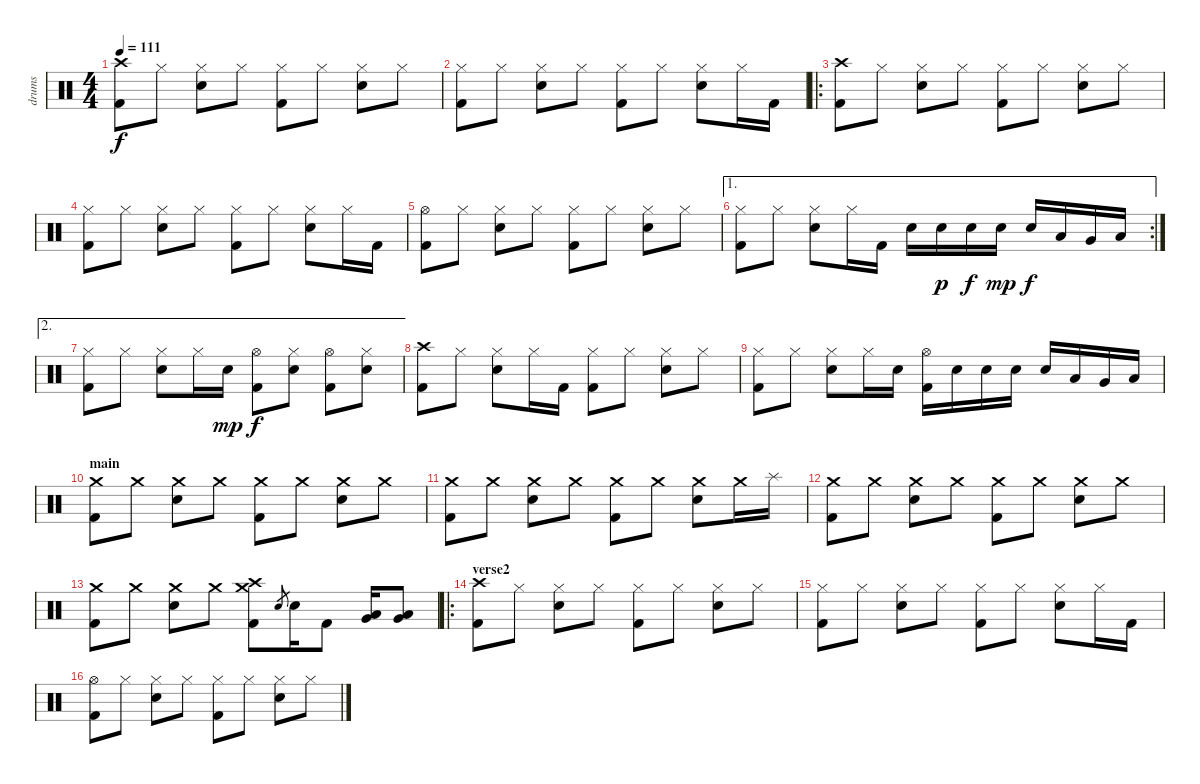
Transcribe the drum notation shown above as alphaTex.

\track ("drums" "drums") {instrument percussion}
\staff {score}
\articulation defaults
\ts (4 4)
\tempo 111
\clef neutral
\ks c
("Crash high (hit)" "Kick (hit) 2").8{dy f} "Hi-Hat (closed)".8 ("Hi-Hat (closed)" "Electric Snare (hit)").8 "Hi-Hat (closed)".8 ("Hi-Hat (closed)" "Kick (hit) 2").8 "Hi-Hat (closed)".8 ("Hi-Hat (closed)" "Electric Snare (hit)").8 "Hi-Hat (closed)".8 |
("Hi-Hat (closed)" "Kick (hit) 2").8 "Hi-Hat (closed)".8 ("Hi-Hat (closed)" "Electric Snare (hit)").8 "Hi-Hat (closed)".8 ("Hi-Hat (closed)" "Kick (hit) 2").8 "Hi-Hat (closed)".8 ("Hi-Hat (closed)" "Electric Snare (hit)").8 "Hi-Hat (closed)".16 "Kick (hit) 2".16 |
\ro
("Crash high (hit)" "Kick (hit) 2").8 "Hi-Hat (closed)".8 ("Hi-Hat (closed)" "Electric Snare (hit)").8 "Hi-Hat (closed)".8 ("Hi-Hat (closed)" "Kick (hit) 2").8 "Hi-Hat (closed)".8 ("Hi-Hat (closed)" "Electric Snare (hit)").8 "Hi-Hat (closed)".8 |
("Hi-Hat (closed)" "Kick (hit) 2").8 "Hi-Hat (closed)".8 ("Hi-Hat (closed)" "Electric Snare (hit)").8 "Hi-Hat (closed)".8 ("Hi-Hat (closed)" "Kick (hit) 2").8 "Hi-Hat (closed)".8 ("Hi-Hat (closed)" "Electric Snare (hit)").8 "Hi-Hat (closed)".16 "Kick (hit) 2".16 |
("Hi-Hat (open)" "Kick (hit) 2").8 "Hi-Hat (closed)".8 ("Hi-Hat (closed)" "Electric Snare (hit)").8 "Hi-Hat (closed)".8 ("Hi-Hat (closed)" "Kick (hit) 2").8 "Hi-Hat (closed)".8 ("Hi-Hat (closed)" "Electric Snare (hit)").8 "Hi-Hat (closed)".8 |
\ae 1
\rc 2
("Hi-Hat (closed)" "Kick (hit) 2").8 "Hi-Hat (closed)".8 ("Hi-Hat (closed)" "Electric Snare (hit)").8 "Hi-Hat (closed)".16 "Kick (hit) 2".16 "Electric Snare (hit)".16 "Electric Snare (hit)".16{dy p} "Electric Snare (hit)".16{dy f} "Electric Snare (hit)".16{dy mp} "Electric Snare (hit)".16{dy f} "Low Tom (hit)".16 "Very Low Tom (hit)".16 "Low Floor Tom (hit)".16 |
\ae 2
("Hi-Hat (closed)" "Kick (hit) 2").8 "Hi-Hat (closed)".8 ("Hi-Hat (closed)" "Electric Snare (hit)").8 "Hi-Hat (closed)".16 "Electric Snare (hit)".16{dy mp} ("Hi-Hat (open)" "Kick (hit) 2").8{dy f} ("Hi-Hat (closed)" "Electric Snare (hit)").8 ("Hi-Hat (open)" "Kick (hit) 2").8 ("Hi-Hat (closed)" "Electric Snare (hit)").8 |
("Crash high (hit)" "Kick (hit) 2").8 "Hi-Hat (closed)".8 ("Hi-Hat (closed)" "Electric Snare (hit)").8 "Hi-Hat (closed)".16 "Kick (hit) 2".16 ("Hi-Hat (closed)" "Kick (hit) 2").8 "Hi-Hat (closed)".8 ("Hi-Hat (closed)" "Electric Snare (hit)").8 "Hi-Hat (closed)".8 |
("Hi-Hat (closed)" "Kick (hit) 2").8 "Hi-Hat (closed)".8 ("Hi-Hat (closed)" "Electric Snare (hit)").8 "Hi-Hat (closed)".16 "Electric Snare (hit)".16 ("Hi-Hat (open)" "Kick (hit) 2").16 "Electric Snare (hit)".16 "Electric Snare (hit)".16 "Electric Snare (hit)".16 "Electric Snare (hit)".16 "Low Tom (hit)".16 "Very Low Tom (hit)".16 "Low Floor Tom (hit)".16 |
\section ("" "main")
("Crash medium (hit)" "Kick (hit) 2").8 "Crash medium (hit)".8 ("Crash medium (hit)" "Electric Snare (hit)").8 "Crash medium (hit)".8 ("Crash medium (hit)" "Kick (hit) 2").8 "Crash medium (hit)".8 ("Crash medium (hit)" "Electric Snare (hit)").8 "Crash medium (hit)".8 |
("Crash medium (hit)" "Kick (hit) 2").8 "Crash medium (hit)".8 ("Crash medium (hit)" "Electric Snare (hit)").8 "Crash medium (hit)".8 ("Crash medium (hit)" "Kick (hit) 2").8 "Crash medium (hit)".8 ("Crash medium (hit)" "Electric Snare (hit)").8 "Crash medium (hit)".16 "Splash (hit)".16 |
("Crash medium (hit)" "Kick (hit) 2").8 "Crash medium (hit)".8 ("Crash medium (hit)" "Electric Snare (hit)").8 "Crash medium (hit)".8 ("Crash medium (hit)" "Kick (hit) 2").8 "Crash medium (hit)".8 ("Crash medium (hit)" "Electric Snare (hit)").8 "Crash medium (hit)".8 |
("Crash medium (hit)" "Kick (hit) 2").8 "Crash medium (hit)".8 ("Crash medium (hit)" "Electric Snare (hit)").8 "Crash medium (hit)".8 ("Crash medium (hit)" "Crash high (hit)" "Kick (hit) 2").8 "Electric Snare (hit)".8{gr} "Electric Snare (hit)".16 "Kick (hit) 2".8 ("Very Low Tom (hit)" "Low Tom (hit)").16 ("Very Low Tom (hit)" "Low Floor Tom (hit)").8 |
\ro
\section ("" "verse2")
("Crash high (hit)" "Kick (hit) 2").8 "Hi-Hat (closed)".8 ("Hi-Hat (closed)" "Electric Snare (hit)").8 "Hi-Hat (closed)".8 ("Hi-Hat (closed)" "Kick (hit) 2").8 "Hi-Hat (closed)".8 ("Hi-Hat (closed)" "Electric Snare (hit)").8 "Hi-Hat (closed)".8 |
("Hi-Hat (closed)" "Kick (hit) 2").8 "Hi-Hat (closed)".8 ("Hi-Hat (closed)" "Electric Snare (hit)").8 "Hi-Hat (closed)".8 ("Hi-Hat (closed)" "Kick (hit) 2").8 "Hi-Hat (closed)".8 ("Hi-Hat (closed)" "Electric Snare (hit)").8 "Hi-Hat (closed)".16 "Kick (hit) 2".16 |
("Hi-Hat (open)" "Kick (hit) 2").8 "Hi-Hat (closed)".8 ("Hi-Hat (closed)" "Electric Snare (hit)").8 "Hi-Hat (closed)".8 ("Hi-Hat (closed)" "Kick (hit) 2").8 "Hi-Hat (closed)".8 ("Hi-Hat (closed)" "Electric Snare (hit)").8 "Hi-Hat (closed)".8
